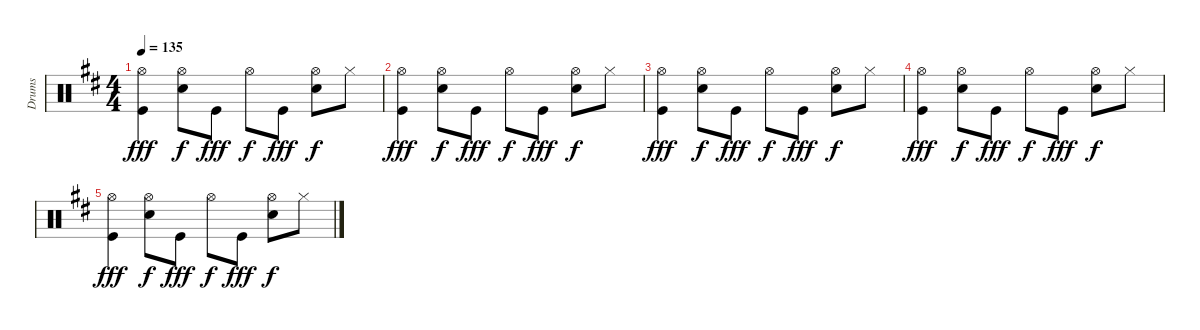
\track ("Drums" "Drums") {instrument percussion}
\staff {score}
\articulation defaults
\ts (4 4)
\tempo 135
\clef neutral
\ks d
("Hi-Hat (open)" "Kick (hit)").4{dy fff} ("Hi-Hat (open)" "Snare (hit) 2").8{dy f} "Kick (hit)".8{dy fff} "Hi-Hat (open)".8{dy f} "Kick (hit)".8{dy fff} ("Hi-Hat (open)" "Snare (hit) 2").8{dy f} "Hi-Hat (closed)".8 |
("Hi-Hat (open)" "Kick (hit)").4{dy fff volume 0} ("Hi-Hat (open)" "Snare (hit) 2").8{dy f} "Kick (hit)".8{dy fff} "Hi-Hat (open)".8{dy f} "Kick (hit)".8{dy fff} ("Hi-Hat (open)" "Snare (hit) 2").8{dy f} "Hi-Hat (closed)".8 |
("Hi-Hat (open)" "Kick (hit)").4{dy fff} ("Hi-Hat (open)" "Snare (hit) 2").8{dy f} "Kick (hit)".8{dy fff} "Hi-Hat (open)".8{dy f} "Kick (hit)".8{dy fff} ("Hi-Hat (open)" "Snare (hit) 2").8{dy f} "Hi-Hat (closed)".8 |
("Hi-Hat (open)" "Kick (hit)").4{dy fff} ("Hi-Hat (open)" "Snare (hit) 2").8{dy f} "Kick (hit)".8{dy fff} "Hi-Hat (open)".8{dy f} "Kick (hit)".8{dy fff} ("Hi-Hat (open)" "Snare (hit) 2").8{dy f} "Hi-Hat (closed)".8 |
("Hi-Hat (open)" "Kick (hit)").4{dy fff} ("Hi-Hat (open)" "Snare (hit) 2").8{dy f} "Kick (hit)".8{dy fff} "Hi-Hat (open)".8{dy f} "Kick (hit)".8{dy fff} ("Hi-Hat (open)" "Snare (hit) 2").8{dy f} "Hi-Hat (closed)".8
